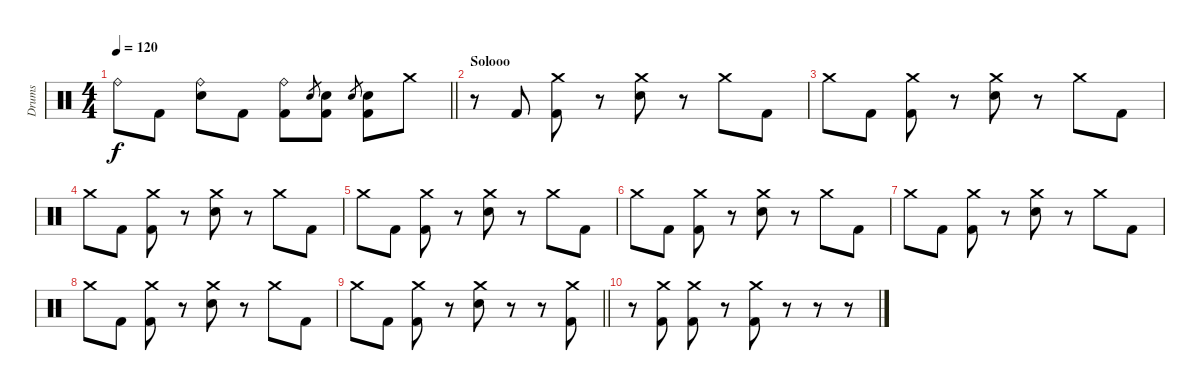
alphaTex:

\track ("Drums" "Drums") {instrument percussion}
\staff {score}
\articulation defaults
\ts (4 4)
\tempo 120
\clef neutral
\barLineRight lightlight
\ks c "Ride (bell)".8{dy f} "Kick (hit) 2".8
("Ride (bell)" "Electric Snare (hit)").8 "Kick (hit) 2".8 ("Ride (bell)" "Kick (hit) 2").8 "Electric Snare (hit)".8{gr} ("Electric Snare (hit)" "Kick (hit) 2").8 "Electric Snare (hit)".8{gr} ("Electric Snare (hit)" "Kick (hit) 2").8 "Crash medium (hit)".8 |
\section ("" "Solooo")
r.8 "Kick (hit) 2".8 ("Crash medium (hit)" "Kick (hit) 2").8 r.8 ("Crash medium (hit)" "Electric Snare (hit)").8 r.8 "Crash medium (hit)".8 "Kick (hit) 2".8 |
"Crash medium (hit)".8 "Kick (hit) 2".8 ("Crash medium (hit)" "Kick (hit) 2").8 r.8 ("Crash medium (hit)" "Electric Snare (hit)").8 r.8 "Crash medium (hit)".8 "Kick (hit) 2".8 |
"Crash medium (hit)".8 "Kick (hit) 2".8 ("Crash medium (hit)" "Kick (hit) 2").8 r.8 ("Crash medium (hit)" "Electric Snare (hit)").8 r.8 "Crash medium (hit)".8 "Kick (hit) 2".8 |
"Crash medium (hit)".8 "Kick (hit) 2".8 ("Crash medium (hit)" "Kick (hit) 2").8 r.8 ("Crash medium (hit)" "Electric Snare (hit)").8 r.8 "Crash medium (hit)".8 "Kick (hit) 2".8 |
"Crash medium (hit)".8 "Kick (hit) 2".8 ("Crash medium (hit)" "Kick (hit) 2").8 r.8 ("Crash medium (hit)" "Electric Snare (hit)").8 r.8 "Crash medium (hit)".8 "Kick (hit) 2".8 |
"Crash medium (hit)".8 "Kick (hit) 2".8 ("Crash medium (hit)" "Kick (hit) 2").8 r.8 ("Crash medium (hit)" "Electric Snare (hit)").8 r.8 "Crash medium (hit)".8 "Kick (hit) 2".8 |
"Crash medium (hit)".8 "Kick (hit) 2".8 ("Crash medium (hit)" "Kick (hit) 2").8 r.8 ("Crash medium (hit)" "Electric Snare (hit)").8 r.8 "Crash medium (hit)".8 "Kick (hit) 2".8 |
\barLineRight lightlight "Crash medium (hit)".8 "Kick (hit) 2".8
("Crash medium (hit)" "Kick (hit) 2").8 r.8 ("Crash medium (hit)" "Electric Snare (hit)").8 r.8 r.8 ("Crash medium (hit)" "Kick (hit) 2").8 |
r.8 ("Crash medium (hit)" "Kick (hit) 2").8 ("Crash medium (hit)" "Kick (hit) 2").8 r.8 ("Crash medium (hit)" "Kick (hit) 2").8 r.8 r.8 r.8
